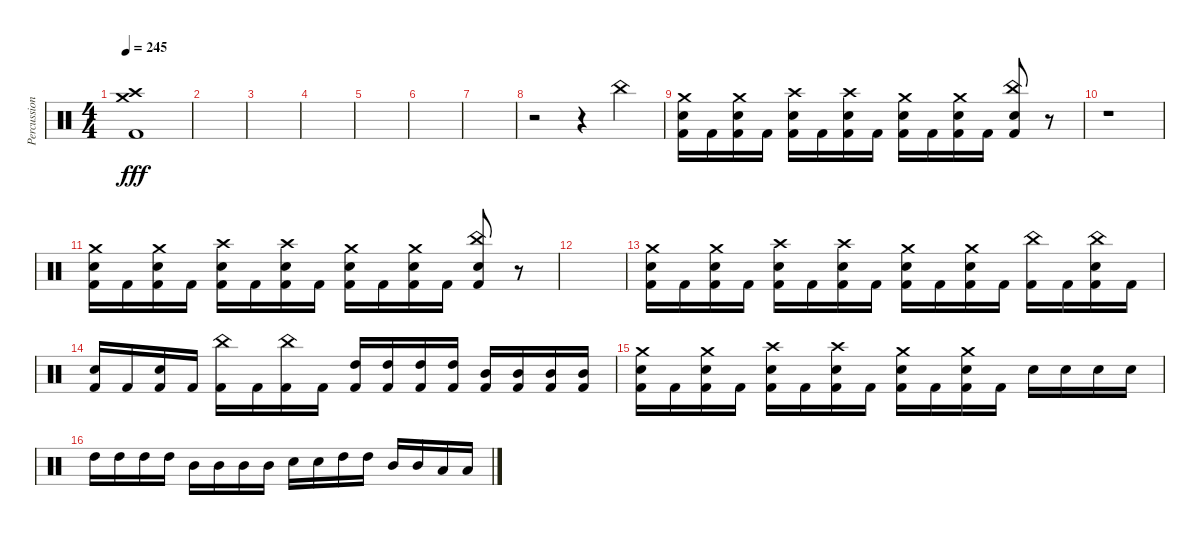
\track ("Percussion" "Percussion") {instrument percussion bank 177}
\staff {score}
\articulation defaults
\ts (4 4)
\tempo 245
\clef neutral
\ks c
("Crash medium (hit)" "Crash high (hit)" "Kick (hit) 2").1{dy fff} |
|
|
|
|
|
|
r.2 r.4 "China (hit)".4 |
("Crash medium (hit)" "Electric Snare (hit)" "Kick (hit) 2").16 "Kick (hit) 2".16 ("Crash medium (hit)" "Electric Snare (hit)" "Kick (hit) 2").16 "Kick (hit) 2".16 ("Crash high (hit)" "Electric Snare (hit)" "Kick (hit) 2").16 "Kick (hit) 2".16 ("Crash high (hit)" "Electric Snare (hit)" "Kick (hit) 2").16 "Kick (hit) 2".16 ("Crash medium (hit)" "Electric Snare (hit)" "Kick (hit) 2").16 "Kick (hit) 2".16 ("Crash medium (hit)" "Electric Snare (hit)" "Kick (hit) 2").16 "Kick (hit) 2".16 ("China (hit)" "Electric Snare (hit)" "Kick (hit) 2").8 r.8 |
r.1 |
("Crash medium (hit)" "Electric Snare (hit)" "Kick (hit) 2").16 "Kick (hit) 2".16 ("Crash medium (hit)" "Electric Snare (hit)" "Kick (hit) 2").16 "Kick (hit) 2".16 ("Crash high (hit)" "Electric Snare (hit)" "Kick (hit) 2").16 "Kick (hit) 2".16 ("Crash high (hit)" "Electric Snare (hit)" "Kick (hit) 2").16 "Kick (hit) 2".16 ("Crash medium (hit)" "Electric Snare (hit)" "Kick (hit) 2").16 "Kick (hit) 2".16 ("Crash medium (hit)" "Electric Snare (hit)" "Kick (hit) 2").16 "Kick (hit) 2".16 ("China (hit)" "Electric Snare (hit)" "Kick (hit) 2").8 r.8 |
|
("Crash medium (hit)" "Electric Snare (hit)" "Kick (hit) 2").16 "Kick (hit) 2".16 ("Crash medium (hit)" "Electric Snare (hit)" "Kick (hit) 2").16 "Kick (hit) 2".16 ("Crash high (hit)" "Electric Snare (hit)" "Kick (hit) 2").16 "Kick (hit) 2".16 ("Crash high (hit)" "Electric Snare (hit)" "Kick (hit) 2").16 "Kick (hit) 2".16 ("Crash medium (hit)" "Electric Snare (hit)" "Kick (hit) 2").16 "Kick (hit) 2".16 ("Crash medium (hit)" "Electric Snare (hit)" "Kick (hit) 2").16 "Kick (hit) 2".16 ("China (hit)" "Kick (hit) 2").16 "Kick (hit) 2".16 ("China (hit)" "Electric Snare (hit)" "Kick (hit) 2").16 "Kick (hit) 2".16 |
("Electric Snare (hit)" "Kick (hit) 2").16 "Kick (hit) 2".16 ("Electric Snare (hit)" "Kick (hit) 2").16 "Kick (hit) 2".16 ("China (hit)" "Kick (hit) 2").16 "Kick (hit) 2".16 ("China (hit)" "Kick (hit) 2").16 "Kick (hit) 2".16 ("High Tom (hit)" "Kick (hit) 2").16 ("High Tom (hit)" "Kick (hit) 2").16 ("High Tom (hit)" "Kick (hit) 2").16 ("High Tom (hit)" "Kick (hit) 2").16 ("Mid Tom (hit)" "Kick (hit) 2").16 ("Mid Tom (hit)" "Kick (hit) 2").16 ("Mid Tom (hit)" "Kick (hit) 2").16 ("Mid Tom (hit)" "Kick (hit) 2").16 |
("Crash medium (hit)" "Electric Snare (hit)" "Kick (hit) 2").16 "Kick (hit) 2".16 ("Crash medium (hit)" "Electric Snare (hit)" "Kick (hit) 2").16 "Kick (hit) 2".16 ("Crash high (hit)" "Electric Snare (hit)" "Kick (hit) 2").16 "Kick (hit) 2".16 ("Crash high (hit)" "Electric Snare (hit)" "Kick (hit) 2").16 "Kick (hit) 2".16 ("Crash medium (hit)" "Electric Snare (hit)" "Kick (hit) 2").16 "Kick (hit) 2".16 ("Crash medium (hit)" "Electric Snare (hit)" "Kick (hit) 2").16 "Kick (hit) 2".16 "Electric Snare (hit)".16 "Electric Snare (hit)".16 "Electric Snare (hit)".16 "Electric Snare (hit)".16 |
"High Tom (hit)".16 "High Tom (hit)".16 "High Tom (hit)".16 "High Tom (hit)".16 "Mid Tom (hit)".16 "Mid Tom (hit)".16 "Mid Tom (hit)".16 "Mid Tom (hit)".16 "Electric Snare (hit)".16 "Electric Snare (hit)".16 "High Tom (hit)".16 "High Tom (hit)".16 "Mid Tom (hit)".16 "Mid Tom (hit)".16 "Low Tom (hit)".16 "Low Tom (hit)".16
